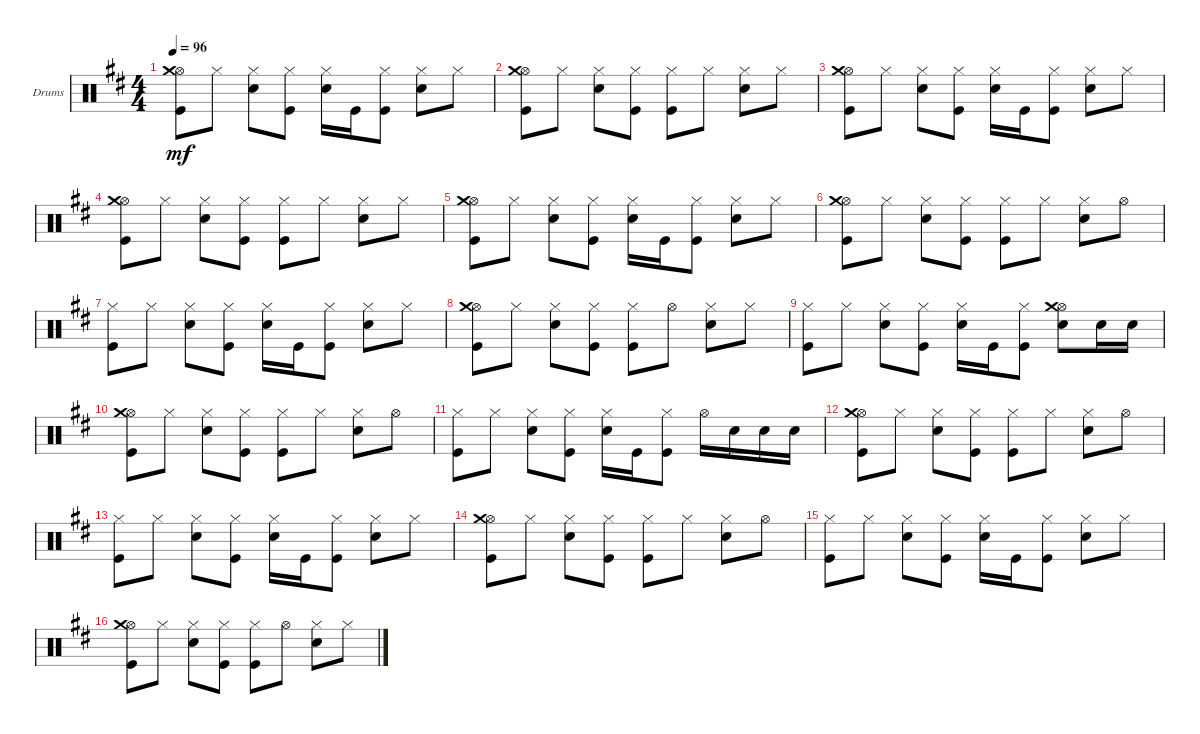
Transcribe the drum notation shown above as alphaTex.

\defaultSystemsLayout 4
\bracketExtendMode groupsimilarinstruments
\firstSystemTrackNameOrientation horizontal
\otherSystemsTrackNameOrientation horizontal
\track ("Drumkit" "Drums") {instrument percussion}
\staff {score}
\articulation defaults
\ts (4 4)
\tempo 96
\clef neutral
\ks d
("Hi-Hat (open)" "Crash medium (hit)" "Kick (hit)").8{dy mf} "Hi-Hat (closed)".8 ("Hi-Hat (closed)" "Snare (hit) 2").8 ("Hi-Hat (closed)" "Kick (hit)").8 ("Hi-Hat (closed)" "Snare (hit) 2").16 "Kick (hit)".16 ("Hi-Hat (closed)" "Kick (hit)").8 ("Hi-Hat (closed)" "Snare (hit) 2").8 "Hi-Hat (closed)".8 |
("Hi-Hat (open)" "Kick (hit)" "Crash medium (hit)").8 "Hi-Hat (closed)".8 ("Hi-Hat (closed)" "Snare (hit) 2").8 ("Hi-Hat (closed)" "Kick (hit)").8 ("Hi-Hat (closed)" "Kick (hit)").8 "Hi-Hat (closed)".8 ("Hi-Hat (closed)" "Snare (hit) 2").8 "Hi-Hat (closed)".8 |
("Hi-Hat (open)" "Crash medium (hit)" "Kick (hit)").8 "Hi-Hat (closed)".8 ("Hi-Hat (closed)" "Snare (hit) 2").8 ("Hi-Hat (closed)" "Kick (hit)").8 ("Hi-Hat (closed)" "Snare (hit) 2").16 "Kick (hit)".16 ("Hi-Hat (closed)" "Kick (hit)").8 ("Hi-Hat (closed)" "Snare (hit) 2").8 "Hi-Hat (closed)".8 |
("Hi-Hat (open)" "Kick (hit)" "Crash medium (hit)").8 "Hi-Hat (closed)".8 ("Hi-Hat (closed)" "Snare (hit) 2").8 ("Hi-Hat (closed)" "Kick (hit)").8 ("Hi-Hat (closed)" "Kick (hit)").8 "Hi-Hat (closed)".8 ("Hi-Hat (closed)" "Snare (hit) 2").8 "Hi-Hat (closed)".8 |
("Hi-Hat (open)" "Crash medium (hit)" "Kick (hit)").8 "Hi-Hat (closed)".8 ("Hi-Hat (closed)" "Snare (hit) 2").8 ("Kick (hit)" "Hi-Hat (closed)").8 ("Hi-Hat (closed)" "Snare (hit) 2").16 "Kick (hit)".16 ("Kick (hit)" "Hi-Hat (closed)").8 ("Hi-Hat (closed)" "Snare (hit) 2").8 "Hi-Hat (closed)".8 |
("Hi-Hat (open)" "Crash medium (hit)" "Kick (hit)").8 "Hi-Hat (closed)".8 ("Hi-Hat (closed)" "Snare (hit) 2").8 ("Hi-Hat (closed)" "Kick (hit)").8 ("Hi-Hat (closed)" "Kick (hit)").8 "Hi-Hat (closed)".8 ("Hi-Hat (closed)" "Snare (hit) 2").8 "Hi-Hat (open)".8 |
("Kick (hit)" "Hi-Hat (closed)").8 "Hi-Hat (closed)".8 ("Hi-Hat (closed)" "Snare (hit) 2").8 ("Hi-Hat (closed)" "Kick (hit)").8 ("Hi-Hat (closed)" "Snare (hit) 2").16 "Kick (hit)".16 ("Kick (hit)" "Hi-Hat (closed)").8 ("Hi-Hat (closed)" "Snare (hit) 2").8 "Hi-Hat (closed)".8 |
("Hi-Hat (open)" "Crash medium (hit)" "Kick (hit)").8 "Hi-Hat (closed)".8 ("Hi-Hat (closed)" "Snare (hit) 2").8 ("Kick (hit)" "Hi-Hat (closed)").8 ("Hi-Hat (closed)" "Kick (hit)").8 "Hi-Hat (open)".8 ("Snare (hit) 2" "Hi-Hat (closed)").8 "Hi-Hat (closed)".8 |
("Hi-Hat (closed)" "Kick (hit)").8 "Hi-Hat (closed)".8 ("Hi-Hat (closed)" "Snare (hit) 2").8 ("Hi-Hat (closed)" "Kick (hit)").8 ("Hi-Hat (closed)" "Snare (hit) 2").16 "Kick (hit)".16 ("Hi-Hat (closed)" "Kick (hit)").8 ("Hi-Hat (open)" "Crash medium (hit)" "Snare (hit) 2").8 "Snare (hit) 2".16 "Snare (hit) 2".16 |
("Hi-Hat (open)" "Crash medium (hit)" "Kick (hit)").8 "Hi-Hat (closed)".8 ("Hi-Hat (closed)" "Snare (hit) 2").8 ("Hi-Hat (closed)" "Kick (hit)").8 ("Hi-Hat (closed)" "Kick (hit)").8 "Hi-Hat (closed)".8 ("Hi-Hat (closed)" "Snare (hit) 2").8 "Hi-Hat (open)".8 |
("Hi-Hat (closed)" "Kick (hit)").8 "Hi-Hat (closed)".8 ("Hi-Hat (closed)" "Snare (hit) 2").8 ("Hi-Hat (closed)" "Kick (hit)").8 ("Hi-Hat (closed)" "Snare (hit) 2").16 "Kick (hit)".16 ("Kick (hit)" "Hi-Hat (closed)").8 "Hi-Hat (open)".16 "Snare (hit) 2".16 "Snare (hit) 2".16 "Snare (hit) 2".16 |
("Hi-Hat (open)" "Crash medium (hit)" "Kick (hit)").8 "Hi-Hat (closed)".8 ("Hi-Hat (closed)" "Snare (hit) 2").8 ("Hi-Hat (closed)" "Kick (hit)").8 ("Hi-Hat (closed)" "Kick (hit)").8 "Hi-Hat (closed)".8 ("Hi-Hat (closed)" "Snare (hit) 2").8 "Hi-Hat (open)".8 |
("Hi-Hat (closed)" "Kick (hit)").8 "Hi-Hat (closed)".8 ("Hi-Hat (closed)" "Snare (hit) 2").8 ("Hi-Hat (closed)" "Kick (hit)").8 ("Hi-Hat (closed)" "Snare (hit) 2").16 "Kick (hit)".16 ("Hi-Hat (closed)" "Kick (hit)").8 ("Hi-Hat (closed)" "Snare (hit) 2").8 "Hi-Hat (closed)".8 |
("Hi-Hat (open)" "Crash medium (hit)" "Kick (hit)").8 "Hi-Hat (closed)".8 ("Hi-Hat (closed)" "Snare (hit) 2").8 ("Hi-Hat (closed)" "Kick (hit)").8 ("Hi-Hat (closed)" "Kick (hit)").8 "Hi-Hat (closed)".8 ("Hi-Hat (closed)" "Snare (hit) 2").8 "Hi-Hat (open)".8 |
("Hi-Hat (closed)" "Kick (hit)").8 "Hi-Hat (closed)".8 ("Hi-Hat (closed)" "Snare (hit) 2").8 ("Hi-Hat (closed)" "Kick (hit)").8 ("Hi-Hat (closed)" "Snare (hit) 2").16 "Kick (hit)".16 ("Hi-Hat (closed)" "Kick (hit)").8 ("Hi-Hat (closed)" "Snare (hit) 2").8 "Hi-Hat (closed)".8 |
("Hi-Hat (open)" "Crash medium (hit)" "Kick (hit)").8 "Hi-Hat (closed)".8 ("Hi-Hat (closed)" "Snare (hit) 2").8 ("Hi-Hat (closed)" "Kick (hit)").8 ("Hi-Hat (closed)" "Kick (hit)").8 "Hi-Hat (open)".8 ("Hi-Hat (closed)" "Snare (hit) 2").8 "Hi-Hat (closed)".8
